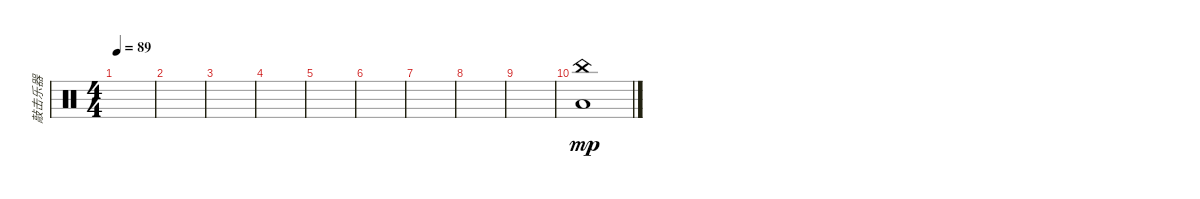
\track ("敲击乐器" "敲击乐器") {instrument percussion}
\staff {score}
\articulation defaults
\ts (4 4)
\tempo 89
\clef neutral
\ks c
|
|
|
|
|
|
|
|
|
("China (hit)" "Low Floor Tom (hit)").1{dy mp}
